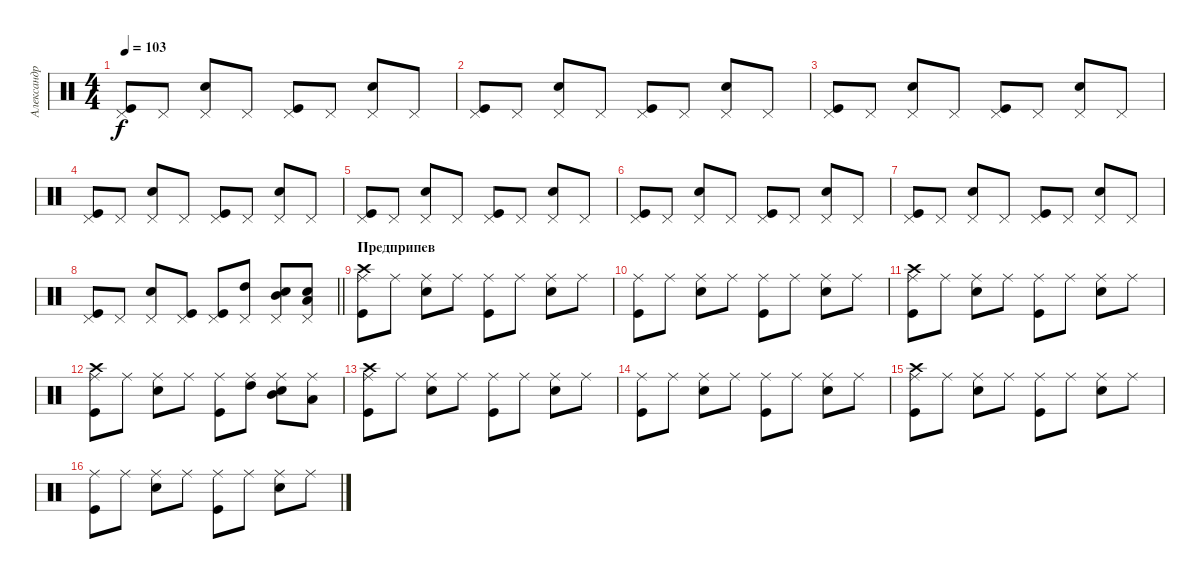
\track ("Александр Ерохин (ударные)" "Александр ") {instrument percussion}
\staff {score}
\articulation defaults
\ts (4 4)
\tempo 103
\clef neutral
\ks c
("Kick (hit)" "Pedal Hi-Hat (hit)").8{dy f} "Pedal Hi-Hat (hit)".8 ("Pedal Hi-Hat (hit)" "Snare (hit) 2").8 "Pedal Hi-Hat (hit)".8 ("Kick (hit)" "Pedal Hi-Hat (hit)").8 "Pedal Hi-Hat (hit)".8 ("Pedal Hi-Hat (hit)" "Snare (hit) 2").8 "Pedal Hi-Hat (hit)".8 |
("Kick (hit)" "Pedal Hi-Hat (hit)").8 "Pedal Hi-Hat (hit)".8 ("Pedal Hi-Hat (hit)" "Snare (hit) 2").8 "Pedal Hi-Hat (hit)".8 ("Kick (hit)" "Pedal Hi-Hat (hit)").8 "Pedal Hi-Hat (hit)".8 ("Pedal Hi-Hat (hit)" "Snare (hit) 2").8 "Pedal Hi-Hat (hit)".8 |
("Kick (hit)" "Pedal Hi-Hat (hit)").8 "Pedal Hi-Hat (hit)".8 ("Pedal Hi-Hat (hit)" "Snare (hit) 2").8 "Pedal Hi-Hat (hit)".8 ("Kick (hit)" "Pedal Hi-Hat (hit)").8 "Pedal Hi-Hat (hit)".8 ("Pedal Hi-Hat (hit)" "Snare (hit) 2").8 "Pedal Hi-Hat (hit)".8 |
("Kick (hit)" "Pedal Hi-Hat (hit)").8 "Pedal Hi-Hat (hit)".8 ("Pedal Hi-Hat (hit)" "Snare (hit) 2").8 "Pedal Hi-Hat (hit)".8 ("Kick (hit)" "Pedal Hi-Hat (hit)").8 "Pedal Hi-Hat (hit)".8 ("Pedal Hi-Hat (hit)" "Snare (hit) 2").8 "Pedal Hi-Hat (hit)".8 |
("Kick (hit)" "Pedal Hi-Hat (hit)").8 "Pedal Hi-Hat (hit)".8 ("Pedal Hi-Hat (hit)" "Snare (hit) 2").8 "Pedal Hi-Hat (hit)".8 ("Kick (hit)" "Pedal Hi-Hat (hit)").8 "Pedal Hi-Hat (hit)".8 ("Pedal Hi-Hat (hit)" "Snare (hit) 2").8 "Pedal Hi-Hat (hit)".8 |
("Kick (hit)" "Pedal Hi-Hat (hit)").8 "Pedal Hi-Hat (hit)".8 ("Pedal Hi-Hat (hit)" "Snare (hit) 2").8 "Pedal Hi-Hat (hit)".8 ("Kick (hit)" "Pedal Hi-Hat (hit)").8 "Pedal Hi-Hat (hit)".8 ("Pedal Hi-Hat (hit)" "Snare (hit) 2").8 "Pedal Hi-Hat (hit)".8 |
("Kick (hit)" "Pedal Hi-Hat (hit)").8 "Pedal Hi-Hat (hit)".8 ("Pedal Hi-Hat (hit)" "Snare (hit) 2").8 "Pedal Hi-Hat (hit)".8 ("Kick (hit)" "Pedal Hi-Hat (hit)").8 "Pedal Hi-Hat (hit)".8 ("Pedal Hi-Hat (hit)" "Snare (hit) 2").8 "Pedal Hi-Hat (hit)".8 |
\barLineRight lightlight
("Kick (hit)" "Pedal Hi-Hat (hit)").8 "Pedal Hi-Hat (hit)".8 ("Pedal Hi-Hat (hit)" "Snare (hit) 2").8 ("Kick (hit)" "Pedal Hi-Hat (hit)").8 ("Kick (hit)" "Pedal Hi-Hat (hit)").8 ("Pedal Hi-Hat (hit)" "High Tom (hit)").8 ("Pedal Hi-Hat (hit)" "Snare (hit) 2" "Mid Tom (hit)").8 ("Pedal Hi-Hat (hit)" "Snare (hit) 2" "Low Tom (hit)").8 |
\section ("" "Предприпев")
("Kick (hit)" "Ride (middle)" "Crash high (hit)").8 "Ride (middle)".8 ("Ride (middle)" "Snare (hit) 2").8 "Ride (middle)".8 ("Kick (hit)" "Ride (middle)").8 "Ride (middle)".8 ("Ride (middle)" "Snare (hit) 2").8 "Ride (middle)".8 |
("Kick (hit)" "Ride (middle)").8 "Ride (middle)".8 ("Ride (middle)" "Snare (hit) 2").8 "Ride (middle)".8 ("Kick (hit)" "Ride (middle)").8 "Ride (middle)".8 ("Ride (middle)" "Snare (hit) 2").8 "Ride (middle)".8 |
("Kick (hit)" "Ride (middle)" "Crash high (hit)").8 "Ride (middle)".8 ("Ride (middle)" "Snare (hit) 2").8 "Ride (middle)".8 ("Kick (hit)" "Ride (middle)").8 "Ride (middle)".8 ("Ride (middle)" "Snare (hit) 2").8 "Ride (middle)".8 |
("Kick (hit)" "Ride (middle)" "Crash high (hit)").8 "Ride (middle)".8 ("Ride (middle)" "Snare (hit) 2").8 "Ride (middle)".8 ("Kick (hit)" "Ride (middle)").8 ("Ride (middle)" "High Tom (hit)").8 ("Ride (middle)" "Snare (hit) 2" "Mid Tom (hit)").8 ("Ride (middle)" "Low Tom (hit)").8 |
("Kick (hit)" "Ride (middle)" "Crash high (hit)").8 "Ride (middle)".8 ("Ride (middle)" "Snare (hit) 2").8 "Ride (middle)".8 ("Kick (hit)" "Ride (middle)").8 "Ride (middle)".8 ("Ride (middle)" "Snare (hit) 2").8 "Ride (middle)".8 |
("Kick (hit)" "Ride (middle)").8 "Ride (middle)".8 ("Ride (middle)" "Snare (hit) 2").8 "Ride (middle)".8 ("Kick (hit)" "Ride (middle)").8 "Ride (middle)".8 ("Ride (middle)" "Snare (hit) 2").8 "Ride (middle)".8 |
("Kick (hit)" "Ride (middle)" "Crash high (hit)").8 "Ride (middle)".8 ("Ride (middle)" "Snare (hit) 2").8 "Ride (middle)".8 ("Kick (hit)" "Ride (middle)").8 "Ride (middle)".8 ("Ride (middle)" "Snare (hit) 2").8 "Ride (middle)".8 |
("Kick (hit)" "Ride (middle)").8 "Ride (middle)".8 ("Ride (middle)" "Snare (hit) 2").8 "Ride (middle)".8 ("Kick (hit)" "Ride (middle)").8 "Ride (middle)".8 ("Ride (middle)" "Snare (hit) 2").8 "Ride (middle)".8
